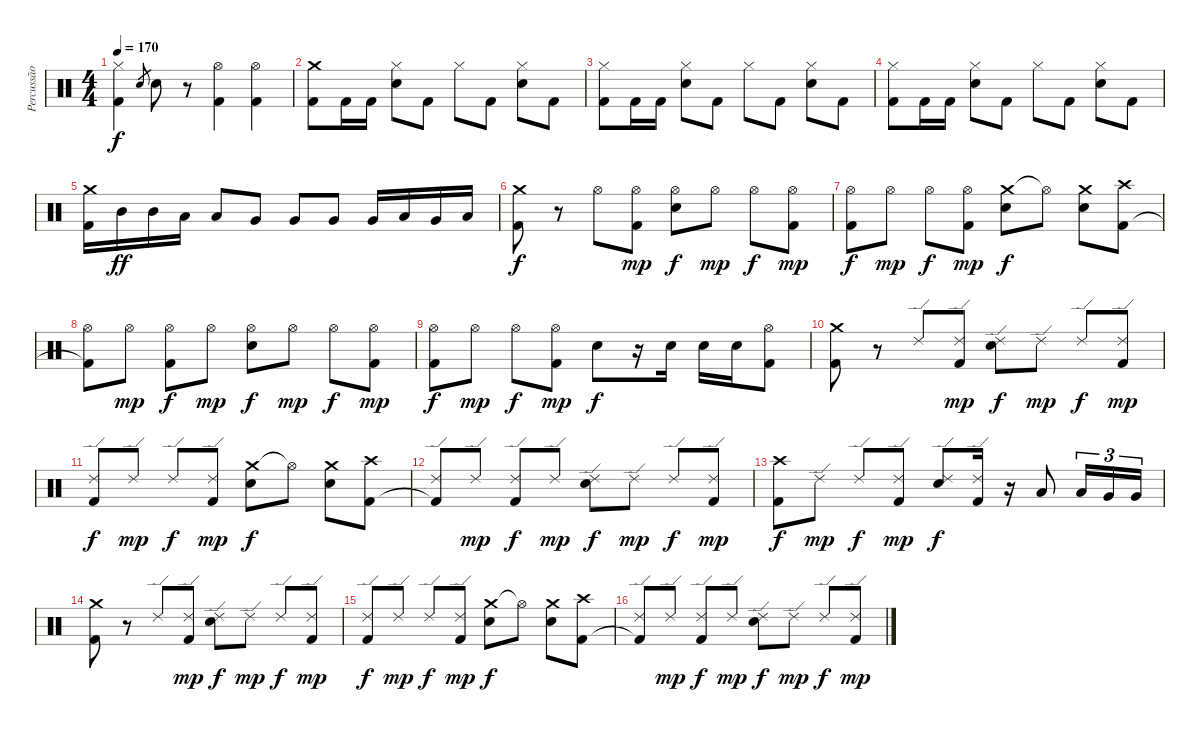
\track ("Percussão" "Percussão") {instrument percussion}
\staff {score}
\articulation defaults
\ts (4 4)
\tempo 170
\clef neutral
\ks c
("Hi-Hat (closed)" "Kick (hit) 2").4{dy f} "Electric Snare (hit)".8{gr} "Electric Snare (hit)".8 r.8 ("Hi-Hat (open)" "Kick (hit) 2").4 ("Hi-Hat (open)" "Kick (hit) 2").4 |
("Crash medium (hit)" "Kick (hit) 2").8 "Kick (hit) 2".16 "Kick (hit) 2".16 ("Hi-Hat (closed)" "Electric Snare (hit)").8 "Kick (hit) 2".8 "Hi-Hat (closed)".8 "Kick (hit) 2".8 ("Hi-Hat (closed)" "Electric Snare (hit)").8 "Kick (hit) 2".8 |
("Hi-Hat (closed)" "Kick (hit) 2").8 "Kick (hit) 2".16 "Kick (hit) 2".16 ("Hi-Hat (closed)" "Electric Snare (hit)").8 "Kick (hit) 2".8 "Hi-Hat (closed)".8 "Kick (hit) 2".8 ("Hi-Hat (closed)" "Electric Snare (hit)").8 "Kick (hit) 2".8 |
("Hi-Hat (closed)" "Kick (hit) 2").8 "Kick (hit) 2".16 "Kick (hit) 2".16 ("Hi-Hat (closed)" "Electric Snare (hit)").8 "Kick (hit) 2".8 "Hi-Hat (closed)".8 "Kick (hit) 2".8 ("Hi-Hat (closed)" "Electric Snare (hit)").8 "Kick (hit) 2".8 |
("Crash medium (hit)" "Kick (hit) 2").16 "Mid Tom (hit)".16{dy ff} "Mid Tom (hit)".16 "Low Tom (hit)".16 "Low Tom (hit)".8 "Very Low Tom (hit)".8 "Very Low Tom (hit)".8 "Very Low Tom (hit)".8 "Very Low Tom (hit)".16 "Low Tom (hit)".16 "Very Low Tom (hit)".16 "Low Floor Tom (hit)".16 |
("Crash medium (hit)" "Kick (hit) 2").8{dy f} r.8 "Hi-Hat (open)".8 ("Hi-Hat (open)" "Kick (hit) 2").8{dy mp} ("Hi-Hat (open)" "Electric Snare (hit)").8{dy f} "Hi-Hat (open)".8{dy mp} "Hi-Hat (open)".8{dy f} ("Hi-Hat (open)" "Kick (hit) 2").8{dy mp} |
("Hi-Hat (open)" "Kick (hit) 2").8{dy f} "Hi-Hat (open)".8{dy mp} "Hi-Hat (open)".8{dy f} ("Hi-Hat (open)" "Kick (hit) 2").8{dy mp} ("Crash medium (hit)" "Electric Snare (hit)").8{dy f} "Hi-Hat (open)"{t}.8 ("Crash medium (hit)" "Electric Snare (hit)").8 ("Crash high (hit)" "Kick (hit) 2").8 |
("Hi-Hat (open)" "Kick (hit) 2"{t}).8 "Hi-Hat (open)".8{dy mp} ("Hi-Hat (open)" "Kick (hit) 2").8{dy f} "Hi-Hat (open)".8{dy mp} ("Hi-Hat (open)" "Electric Snare (hit)").8{dy f} "Hi-Hat (open)".8{dy mp} "Hi-Hat (open)".8{dy f} ("Hi-Hat (open)" "Kick (hit) 2").8{dy mp} |
("Hi-Hat (open)" "Kick (hit) 2").8{dy f} "Hi-Hat (open)".8{dy mp} "Hi-Hat (open)".8{dy f} ("Hi-Hat (open)" "Kick (hit) 2").8{dy mp} "Electric Snare (hit)".8{dy f} r.16 "Electric Snare (hit)".16 "Electric Snare (hit)".16 "Electric Snare (hit)".16 ("Hi-Hat (open)" "Kick (hit) 2").8 |
("Crash medium (hit)" "Kick (hit) 2").8 r.8 "Ride (edge) 2".8 ("Ride (edge) 2" "Kick (hit) 2").8{dy mp} ("Ride (edge) 2" "Electric Snare (hit)").8{dy f} "Ride (edge) 2".8{dy mp} "Ride (edge) 2".8{dy f} ("Ride (edge) 2" "Kick (hit) 2").8{dy mp} |
("Ride (edge) 2" "Kick (hit) 2").8{dy f} "Ride (edge) 2".8{dy mp} "Ride (edge) 2".8{dy f} ("Ride (edge) 2" "Kick (hit) 2").8{dy mp} ("Crash medium (hit)" "Electric Snare (hit)").8{dy f} "Hi-Hat (open)"{t}.8 ("Crash medium (hit)" "Electric Snare (hit)").8 ("Crash high (hit)" "Kick (hit) 2").8 |
("Ride (edge) 2" "Kick (hit) 2"{t}).8 "Ride (edge) 2".8{dy mp} ("Ride (edge) 2" "Kick (hit) 2").8{dy f} "Ride (edge) 2".8{dy mp} ("Ride (edge) 2" "Electric Snare (hit)").8{dy f} "Ride (edge) 2".8{dy mp} "Ride (edge) 2".8{dy f} ("Ride (edge) 2" "Kick (hit) 2").8{dy mp} |
("Crash high (hit)" "Kick (hit) 2").8{dy f} "Ride (edge) 2".8{dy mp} "Ride (edge) 2".8{dy f} ("Ride (edge) 2" "Kick (hit) 2").8{dy mp} ("Ride (edge) 2" "Electric Snare (hit)").8{dy f} ("Ride (edge) 2" "Kick (hit) 2").16 r.16 "Low Tom (hit)".8 "Low Tom (hit)".16{tu (3 2)} "Very Low Tom (hit)".16{tu (3 2)} "Very Low Tom (hit)".16{tu (3 2)} |
("Crash medium (hit)" "Kick (hit) 2").8 r.8 "Ride (edge) 2".8 ("Ride (edge) 2" "Kick (hit) 2").8{dy mp} ("Ride (edge) 2" "Electric Snare (hit)").8{dy f} "Ride (edge) 2".8{dy mp} "Ride (edge) 2".8{dy f} ("Ride (edge) 2" "Kick (hit) 2").8{dy mp} |
("Ride (edge) 2" "Kick (hit) 2").8{dy f} "Ride (edge) 2".8{dy mp} "Ride (edge) 2".8{dy f} ("Ride (edge) 2" "Kick (hit) 2").8{dy mp} ("Crash medium (hit)" "Electric Snare (hit)").8{dy f} "Hi-Hat (open)"{t}.8 ("Crash medium (hit)" "Electric Snare (hit)").8 ("Crash high (hit)" "Kick (hit) 2").8 |
("Ride (edge) 2" "Kick (hit) 2"{t}).8 "Ride (edge) 2".8{dy mp} ("Ride (edge) 2" "Kick (hit) 2").8{dy f} "Ride (edge) 2".8{dy mp} ("Ride (edge) 2" "Electric Snare (hit)").8{dy f} "Ride (edge) 2".8{dy mp} "Ride (edge) 2".8{dy f} ("Ride (edge) 2" "Kick (hit) 2").8{dy mp}
